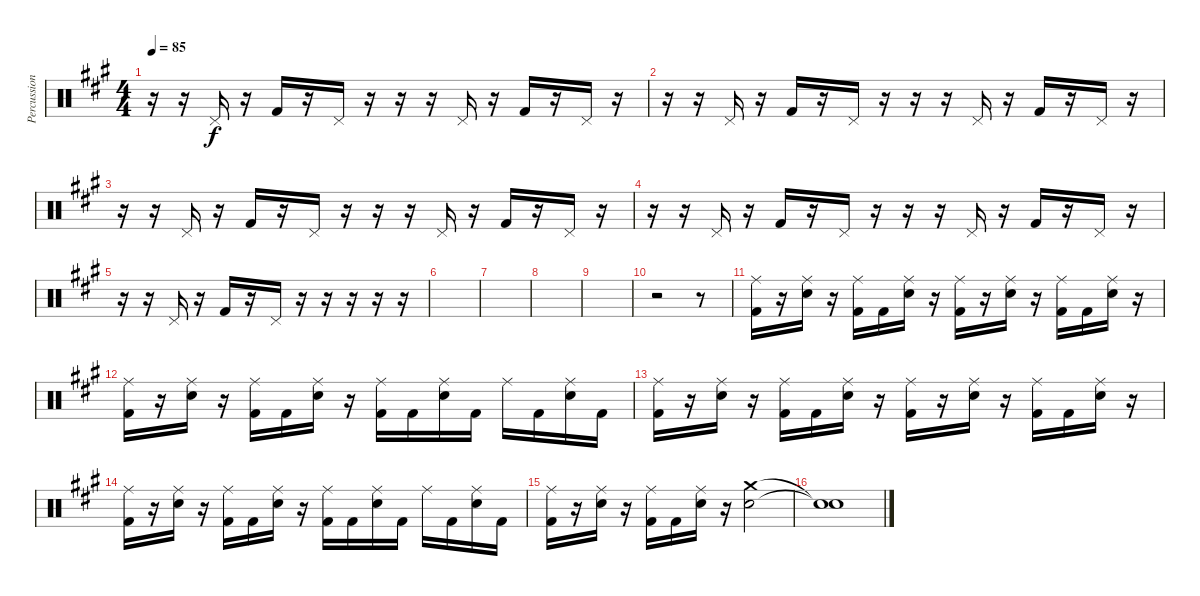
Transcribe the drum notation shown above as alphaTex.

\track ("Percussion" "Percussion") {instrument percussion}
\staff {score}
\articulation defaults
\ts (4 4)
\tempo 85
\clef neutral
\ks a
r.16{dy f} r.16 "Pedal Hi-Hat (hit)".16 r.16 "Kick (hit) 2".16 r.16 "Pedal Hi-Hat (hit)".16 r.16 r.16 r.16 "Pedal Hi-Hat (hit)".16 r.16 "Kick (hit) 2".16 r.16 "Pedal Hi-Hat (hit)".16 r.16 |
r.16 r.16 "Pedal Hi-Hat (hit)".16 r.16 "Kick (hit) 2".16 r.16 "Pedal Hi-Hat (hit)".16 r.16 r.16 r.16 "Pedal Hi-Hat (hit)".16 r.16 "Kick (hit) 2".16 r.16 "Pedal Hi-Hat (hit)".16 r.16 |
r.16 r.16 "Pedal Hi-Hat (hit)".16 r.16 "Kick (hit) 2".16 r.16 "Pedal Hi-Hat (hit)".16 r.16 r.16 r.16 "Pedal Hi-Hat (hit)".16 r.16 "Kick (hit) 2".16 r.16 "Pedal Hi-Hat (hit)".16 r.16 |
r.16 r.16 "Pedal Hi-Hat (hit)".16 r.16 "Kick (hit) 2".16 r.16 "Pedal Hi-Hat (hit)".16 r.16 r.16 r.16 "Pedal Hi-Hat (hit)".16 r.16 "Kick (hit) 2".16 r.16 "Pedal Hi-Hat (hit)".16 r.16 |
r.16 r.16 "Pedal Hi-Hat (hit)".16 r.16 "Kick (hit) 2".16 r.16 "Pedal Hi-Hat (hit)".16 r.16 r.16 r.16 r.16 r.16 |
|
|
|
|
r.2 r.8 |
("Ride (middle)" "Kick (hit) 2").16 r.16 ("Ride (middle)" "Electric Snare (hit)").16 r.16 ("Ride (middle)" "Kick (hit) 2").16 "Kick (hit) 2".16 ("Ride (middle)" "Electric Snare (hit)").16 r.16 ("Ride (middle)" "Kick (hit) 2").16 r.16 ("Ride (middle)" "Electric Snare (hit)").16 r.16 ("Ride (middle)" "Kick (hit) 2").16 "Kick (hit) 2".16 ("Ride (middle)" "Electric Snare (hit)").16 r.16 |
("Ride (middle)" "Kick (hit) 2").16 r.16 ("Ride (middle)" "Electric Snare (hit)").16 r.16 ("Ride (middle)" "Kick (hit) 2").16 "Kick (hit) 2".16 ("Ride (middle)" "Electric Snare (hit)").16 r.16 ("Ride (middle)" "Kick (hit) 2").16 "Kick (hit) 2".16 ("Ride (middle)" "Electric Snare (hit)").16 "Kick (hit) 2".16 "Ride (middle)".16 "Kick (hit) 2".16 ("Ride (middle)" "Electric Snare (hit)").16 "Kick (hit) 2".16 |
("Ride (middle)" "Kick (hit) 2").16 r.16 ("Ride (middle)" "Electric Snare (hit)").16 r.16 ("Ride (middle)" "Kick (hit) 2").16 "Kick (hit) 2".16 ("Ride (middle)" "Electric Snare (hit)").16 r.16 ("Ride (middle)" "Kick (hit) 2").16 r.16 ("Ride (middle)" "Electric Snare (hit)").16 r.16 ("Ride (middle)" "Kick (hit) 2").16 "Kick (hit) 2".16 ("Ride (middle)" "Electric Snare (hit)").16 r.16 |
("Ride (middle)" "Kick (hit) 2").16 r.16 ("Ride (middle)" "Electric Snare (hit)").16 r.16 ("Ride (middle)" "Kick (hit) 2").16 "Kick (hit) 2".16 ("Ride (middle)" "Electric Snare (hit)").16 r.16 ("Ride (middle)" "Kick (hit) 2").16 "Kick (hit) 2".16 ("Ride (middle)" "Electric Snare (hit)").16 "Kick (hit) 2".16 "Ride (middle)".16 "Kick (hit) 2".16 ("Ride (middle)" "Electric Snare (hit)").16 "Kick (hit) 2".16 |
("Ride (middle)" "Kick (hit) 2").16 r.16 ("Ride (middle)" "Electric Snare (hit)").16 r.16 ("Ride (middle)" "Kick (hit) 2").16 "Kick (hit) 2".16 ("Ride (middle)" "Electric Snare (hit)").16 r.16 ("Electric Snare (hit)" "Crash medium (hit)").2 |
("Snare (hit)"{t} "Snare (hit)"{t}).1
